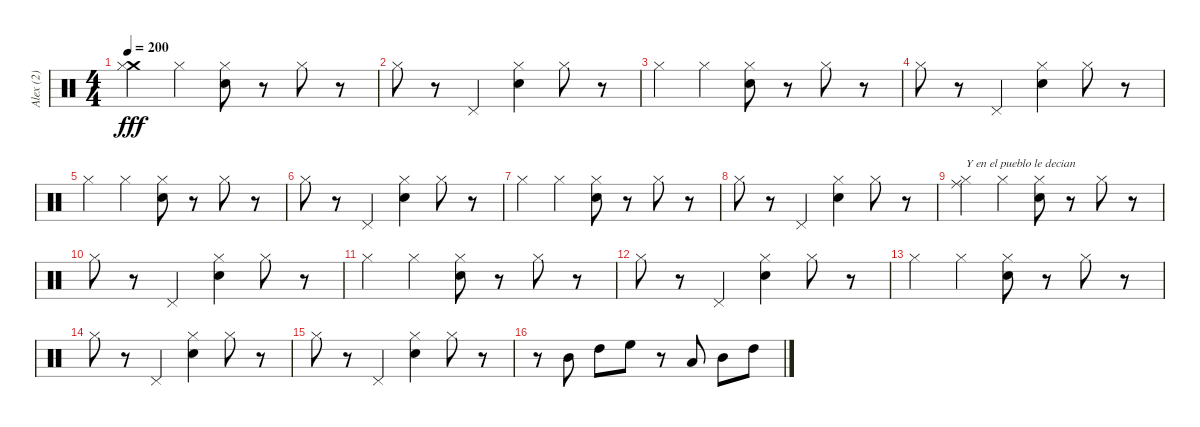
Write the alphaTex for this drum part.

\track ("Alex (2)" "Alex (2)") {instrument percussion}
\staff {score}
\articulation defaults
\ts (4 4)
\tempo 200
\clef neutral
\ks c
("Crash medium (hit)" "Hi-Hat (closed)").4{dy fff} "Hi-Hat (closed)".4 ("Electric Snare (hit)" "Hi-Hat (closed)").8 r.8 "Hi-Hat (closed)".8 r.8 |
"Hi-Hat (closed)".8 r.8 "Pedal Hi-Hat (hit)".4 ("Electric Snare (hit)" "Hi-Hat (closed)").4 "Hi-Hat (closed)".8 r.8 |
"Hi-Hat (closed)".4 "Hi-Hat (closed)".4 ("Electric Snare (hit)" "Hi-Hat (closed)").8 r.8 "Hi-Hat (closed)".8 r.8 |
"Hi-Hat (closed)".8 r.8 "Pedal Hi-Hat (hit)".4 ("Electric Snare (hit)" "Hi-Hat (closed)").4 "Hi-Hat (closed)".8 r.8 |
"Hi-Hat (closed)".4 "Hi-Hat (closed)".4 ("Electric Snare (hit)" "Hi-Hat (closed)").8 r.8 "Hi-Hat (closed)".8 r.8 |
"Hi-Hat (closed)".8 r.8 "Pedal Hi-Hat (hit)".4 ("Electric Snare (hit)" "Hi-Hat (closed)").4 "Hi-Hat (closed)".8 r.8 |
"Hi-Hat (closed)".4 "Hi-Hat (closed)".4 ("Electric Snare (hit)" "Hi-Hat (closed)").8 r.8 "Hi-Hat (closed)".8 r.8 |
"Hi-Hat (closed)".8 r.8 "Pedal Hi-Hat (hit)".4 ("Electric Snare (hit)" "Hi-Hat (closed)").4 "Hi-Hat (closed)".8 r.8 |
("Hi-Hat (closed)" "Ride (middle)").4{txt "Y en el pueblo le decian"} "Hi-Hat (closed)".4 ("Electric Snare (hit)" "Hi-Hat (closed)").8 r.8 "Hi-Hat (closed)".8 r.8 |
"Hi-Hat (closed)".8 r.8 "Pedal Hi-Hat (hit)".4 ("Electric Snare (hit)" "Hi-Hat (closed)").4 "Hi-Hat (closed)".8 r.8 |
"Hi-Hat (closed)".4 "Hi-Hat (closed)".4 ("Electric Snare (hit)" "Hi-Hat (closed)").8 r.8 "Hi-Hat (closed)".8 r.8 |
"Hi-Hat (closed)".8 r.8 "Pedal Hi-Hat (hit)".4 ("Electric Snare (hit)" "Hi-Hat (closed)").4 "Hi-Hat (closed)".8 r.8 |
"Hi-Hat (closed)".4 "Hi-Hat (closed)".4 ("Electric Snare (hit)" "Hi-Hat (closed)").8 r.8 "Hi-Hat (closed)".8 r.8 |
"Hi-Hat (closed)".8 r.8 "Pedal Hi-Hat (hit)".4 ("Electric Snare (hit)" "Hi-Hat (closed)").4 "Hi-Hat (closed)".8 r.8 |
"Hi-Hat (closed)".8 r.8 "Pedal Hi-Hat (hit)".4 ("Electric Snare (hit)" "Hi-Hat (closed)").4 "Hi-Hat (closed)".8 r.8 |
r.8 "Mid Tom (hit)".8 "High Tom (hit)".8 "High Floor Tom (hit)".8 r.8 "Low Tom (hit)".8 "Mid Tom (hit)".8 "High Tom (hit)".8
